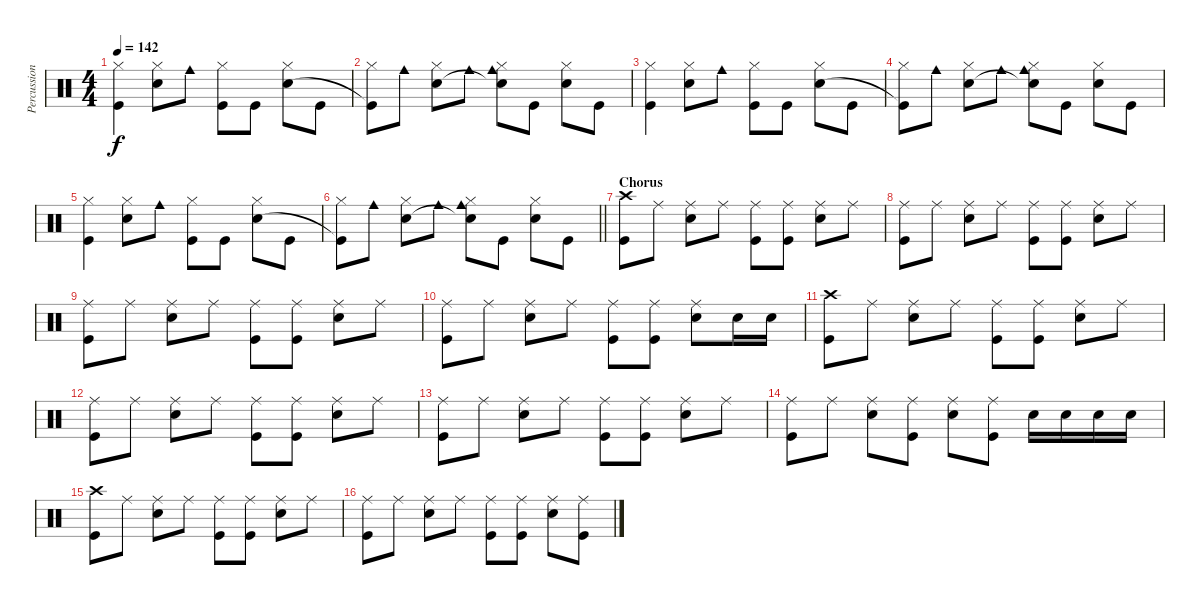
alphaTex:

\track ("Percussion" "Percussion") {instrument percussion}
\staff {score}
\articulation defaults
\ts (4 4)
\tempo 142
\clef neutral
\ks c
("Kick (hit)" "Hi-Hat (closed)").4{dy f} ("Snare (hit) 2" "Hi-Hat (closed)").8 "Cowbell medium (hit)".8 ("Hi-Hat (closed)" "Kick (hit)").8 "Kick (hit)".8 ("Hi-Hat (closed)" "Snare (hit) 2").8 "Kick (hit)".8 |
("Hi-Hat (closed)" "Kick (hit)"{t}).8 "Cowbell medium (hit)".8 ("Hi-Hat (closed)" "Snare (hit) 2").8 "Cowbell medium (hit)".8 ("Hi-Hat (closed)" "Snare (hit) 2"{t} "Cowbell medium (hit)").8 "Kick (hit)".8 ("Hi-Hat (closed)" "Snare (hit) 2").8 "Kick (hit)".8 |
("Kick (hit)" "Hi-Hat (closed)").4 ("Snare (hit) 2" "Hi-Hat (closed)").8 "Cowbell medium (hit)".8 ("Hi-Hat (closed)" "Kick (hit)").8 "Kick (hit)".8 ("Hi-Hat (closed)" "Snare (hit) 2").8 "Kick (hit)".8 |
("Hi-Hat (closed)" "Kick (hit)"{t}).8 "Cowbell medium (hit)".8 ("Hi-Hat (closed)" "Snare (hit) 2").8 "Cowbell medium (hit)".8 ("Hi-Hat (closed)" "Snare (hit) 2"{t} "Cowbell medium (hit)").8 "Kick (hit)".8 ("Hi-Hat (closed)" "Snare (hit) 2").8 "Kick (hit)".8 |
("Kick (hit)" "Hi-Hat (closed)").4 ("Snare (hit) 2" "Hi-Hat (closed)").8 "Cowbell medium (hit)".8 ("Hi-Hat (closed)" "Kick (hit)").8 "Kick (hit)".8 ("Hi-Hat (closed)" "Snare (hit) 2").8 "Kick (hit)".8 |
\barLineRight lightlight
("Hi-Hat (closed)" "Kick (hit)"{t}).8 "Cowbell medium (hit)".8 ("Hi-Hat (closed)" "Snare (hit) 2").8 "Cowbell medium (hit)".8 ("Hi-Hat (closed)" "Snare (hit) 2"{t} "Cowbell medium (hit)").8 "Kick (hit)".8 ("Hi-Hat (closed)" "Snare (hit) 2").8 "Kick (hit)".8 |
\section ("" "Chorus")
("Crash high (hit)" "Kick (hit)").8 "Ride (middle)".8 ("Ride (middle)" "Snare (hit) 2").8 "Ride (middle)".8 ("Ride (middle)" "Kick (hit)").8 ("Ride (middle)" "Kick (hit)").8 ("Ride (middle)" "Snare (hit) 2").8 "Ride (middle)".8 |
("Ride (middle)" "Kick (hit)").8 "Ride (middle)".8 ("Ride (middle)" "Snare (hit) 2").8 "Ride (middle)".8 ("Ride (middle)" "Kick (hit)").8 ("Ride (middle)" "Kick (hit)").8 ("Ride (middle)" "Snare (hit) 2").8 "Ride (middle)".8 |
("Ride (middle)" "Kick (hit)").8 "Ride (middle)".8 ("Ride (middle)" "Snare (hit) 2").8 "Ride (middle)".8 ("Ride (middle)" "Kick (hit)").8 ("Ride (middle)" "Kick (hit)").8 ("Ride (middle)" "Snare (hit) 2").8 "Ride (middle)".8 |
("Ride (middle)" "Kick (hit)").8 "Ride (middle)".8 ("Ride (middle)" "Snare (hit) 2").8 "Ride (middle)".8 ("Ride (middle)" "Kick (hit)").8 ("Ride (middle)" "Kick (hit)").8 ("Ride (middle)" "Snare (hit) 2").8 "Snare (hit) 2".16 "Snare (hit) 2".16 |
("Crash high (hit)" "Kick (hit)").8 "Ride (middle)".8 ("Ride (middle)" "Snare (hit) 2").8 "Ride (middle)".8 ("Ride (middle)" "Kick (hit)").8 ("Ride (middle)" "Kick (hit)").8 ("Ride (middle)" "Snare (hit) 2").8 "Ride (middle)".8 |
("Ride (middle)" "Kick (hit)").8 "Ride (middle)".8 ("Ride (middle)" "Snare (hit) 2").8 "Ride (middle)".8 ("Ride (middle)" "Kick (hit)").8 ("Ride (middle)" "Kick (hit)").8 ("Ride (middle)" "Snare (hit) 2").8 "Ride (middle)".8 |
("Ride (middle)" "Kick (hit)").8 "Ride (middle)".8 ("Ride (middle)" "Snare (hit) 2").8 "Ride (middle)".8 ("Ride (middle)" "Kick (hit)").8 ("Ride (middle)" "Kick (hit)").8 ("Ride (middle)" "Snare (hit) 2").8 "Ride (middle)".8 |
("Ride (middle)" "Kick (hit)").8 "Ride (middle)".8 ("Ride (middle)" "Snare (hit) 2").8 ("Ride (middle)" "Kick (hit)").8 ("Ride (middle)" "Snare (hit) 2").8 ("Ride (middle)" "Kick (hit)").8 "Snare (hit) 2".16 "Snare (hit) 2".16 "Snare (hit) 2".16 "Snare (hit) 2".16 |
("Crash high (hit)" "Kick (hit)").8 "Ride (middle)".8 ("Ride (middle)" "Snare (hit) 2").8 "Ride (middle)".8 ("Ride (middle)" "Kick (hit)").8 ("Ride (middle)" "Kick (hit)").8 ("Ride (middle)" "Snare (hit) 2").8 "Ride (middle)".8 |
("Ride (middle)" "Kick (hit)").8 "Ride (middle)".8 ("Ride (middle)" "Snare (hit) 2").8 "Ride (middle)".8 ("Ride (middle)" "Kick (hit)").8 ("Ride (middle)" "Kick (hit)").8 ("Ride (middle)" "Snare (hit) 2").8 ("Ride (middle)" "Kick (hit)").8
